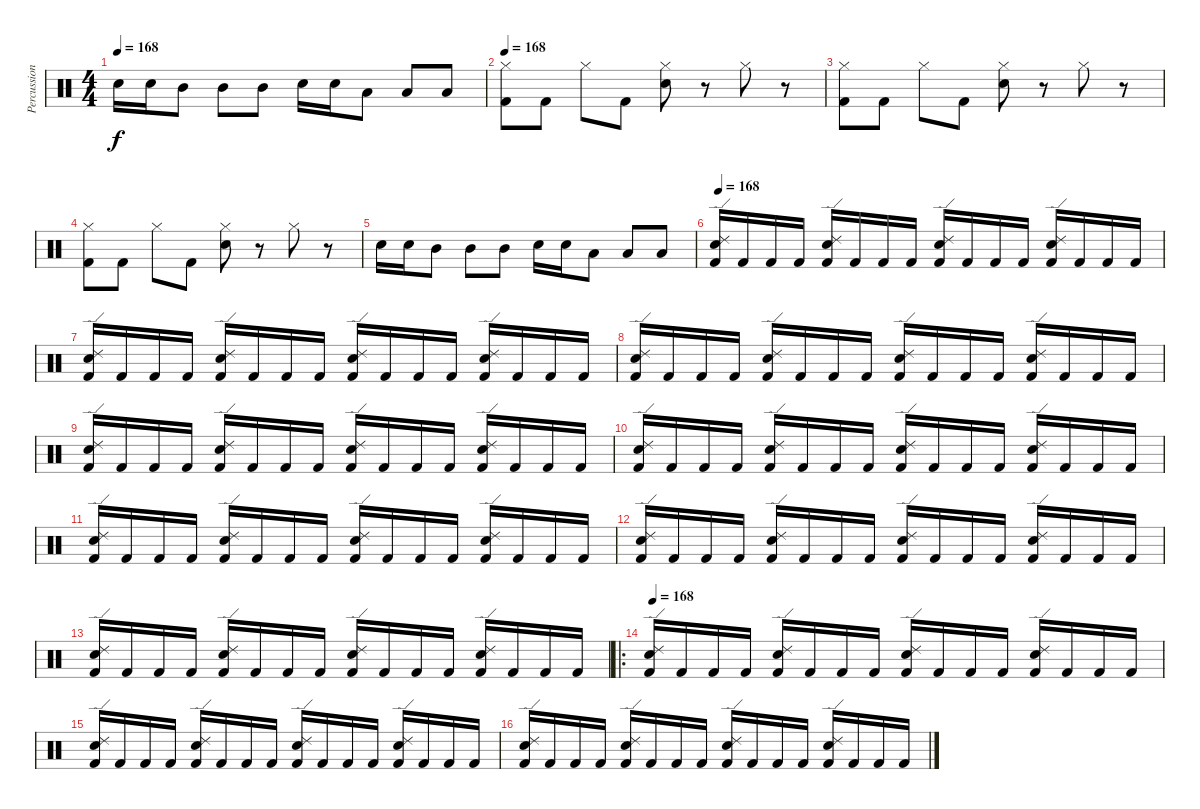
\track ("Percussion" "Percussion") {instrument percussion}
\staff {score}
\articulation defaults
\ts (4 4)
\tempo 168
\clef neutral
\ks c "Snare (hit) 2".16{dy f} "Snare (hit) 2".16 "Mid Tom (hit)".8 "Mid Tom (hit)".8 "Mid Tom (hit)".8 "Snare (hit) 2".16 "Snare (hit) 2".16 "Low Tom (hit)".8 "Low Tom (hit)".8 "Low Tom (hit)".8
|
\tempo 168
("Hi-Hat (closed)" "Kick (hit) 2").8 "Kick (hit) 2".8 "Hi-Hat (closed)".8 "Kick (hit) 2".8 ("Hi-Hat (closed)" "Snare (hit) 2").8 r.8 "Hi-Hat (closed)".8 r.8 |
("Hi-Hat (closed)" "Kick (hit) 2").8 "Kick (hit) 2".8 "Hi-Hat (closed)".8 "Kick (hit) 2".8 ("Hi-Hat (closed)" "Snare (hit) 2").8 r.8 "Hi-Hat (closed)".8 r.8 |
("Hi-Hat (closed)" "Kick (hit) 2").8 "Kick (hit) 2".8 "Hi-Hat (closed)".8 "Kick (hit) 2".8 ("Hi-Hat (closed)" "Snare (hit) 2").8 r.8 "Hi-Hat (closed)".8 r.8 |
"Snare (hit) 2".16 "Snare (hit) 2".16 "Mid Tom (hit)".8 "Mid Tom (hit)".8 "Mid Tom (hit)".8 "Snare (hit) 2".16 "Snare (hit) 2".16 "Low Tom (hit)".8 "Low Tom (hit)".8 "Low Tom (hit)".8 |
\tempo 168
("Ride (edge) 2" "Snare (hit) 2" "Kick (hit) 2").16 "Kick (hit) 2".16 "Kick (hit) 2".16 "Kick (hit) 2".16 ("Ride (edge) 2" "Snare (hit) 2" "Kick (hit) 2").16 "Kick (hit) 2".16 "Kick (hit) 2".16 "Kick (hit) 2".16 ("Ride (edge) 2" "Snare (hit) 2" "Kick (hit) 2").16 "Kick (hit) 2".16 "Kick (hit) 2".16 "Kick (hit) 2".16 ("Ride (edge) 2" "Snare (hit) 2" "Kick (hit) 2").16 "Kick (hit) 2".16 "Kick (hit) 2".16 "Kick (hit) 2".16 |
("Ride (edge) 2" "Snare (hit) 2" "Kick (hit) 2").16 "Kick (hit) 2".16 "Kick (hit) 2".16 "Kick (hit) 2".16 ("Ride (edge) 2" "Snare (hit) 2" "Kick (hit) 2").16 "Kick (hit) 2".16 "Kick (hit) 2".16 "Kick (hit) 2".16 ("Ride (edge) 2" "Snare (hit) 2" "Kick (hit) 2").16 "Kick (hit) 2".16 "Kick (hit) 2".16 "Kick (hit) 2".16 ("Ride (edge) 2" "Snare (hit) 2" "Kick (hit) 2").16 "Kick (hit) 2".16 "Kick (hit) 2".16 "Kick (hit) 2".16 |
("Ride (edge) 2" "Snare (hit) 2" "Kick (hit) 2").16 "Kick (hit) 2".16 "Kick (hit) 2".16 "Kick (hit) 2".16 ("Ride (edge) 2" "Snare (hit) 2" "Kick (hit) 2").16 "Kick (hit) 2".16 "Kick (hit) 2".16 "Kick (hit) 2".16 ("Ride (edge) 2" "Snare (hit) 2" "Kick (hit) 2").16 "Kick (hit) 2".16 "Kick (hit) 2".16 "Kick (hit) 2".16 ("Ride (edge) 2" "Snare (hit) 2" "Kick (hit) 2").16 "Kick (hit) 2".16 "Kick (hit) 2".16 "Kick (hit) 2".16 |
("Ride (edge) 2" "Snare (hit) 2" "Kick (hit) 2").16 "Kick (hit) 2".16 "Kick (hit) 2".16 "Kick (hit) 2".16 ("Ride (edge) 2" "Snare (hit) 2" "Kick (hit) 2").16 "Kick (hit) 2".16 "Kick (hit) 2".16 "Kick (hit) 2".16 ("Ride (edge) 2" "Snare (hit) 2" "Kick (hit) 2").16 "Kick (hit) 2".16 "Kick (hit) 2".16 "Kick (hit) 2".16 ("Ride (edge) 2" "Snare (hit) 2" "Kick (hit) 2").16 "Kick (hit) 2".16 "Kick (hit) 2".16 "Kick (hit) 2".16 |
("Ride (edge) 2" "Snare (hit) 2" "Kick (hit) 2").16 "Kick (hit) 2".16 "Kick (hit) 2".16 "Kick (hit) 2".16 ("Ride (edge) 2" "Snare (hit) 2" "Kick (hit) 2").16 "Kick (hit) 2".16 "Kick (hit) 2".16 "Kick (hit) 2".16 ("Ride (edge) 2" "Snare (hit) 2" "Kick (hit) 2").16 "Kick (hit) 2".16 "Kick (hit) 2".16 "Kick (hit) 2".16 ("Ride (edge) 2" "Snare (hit) 2" "Kick (hit) 2").16 "Kick (hit) 2".16 "Kick (hit) 2".16 "Kick (hit) 2".16 |
("Ride (edge) 2" "Snare (hit) 2" "Kick (hit) 2").16 "Kick (hit) 2".16 "Kick (hit) 2".16 "Kick (hit) 2".16 ("Ride (edge) 2" "Snare (hit) 2" "Kick (hit) 2").16 "Kick (hit) 2".16 "Kick (hit) 2".16 "Kick (hit) 2".16 ("Ride (edge) 2" "Snare (hit) 2" "Kick (hit) 2").16 "Kick (hit) 2".16 "Kick (hit) 2".16 "Kick (hit) 2".16 ("Ride (edge) 2" "Snare (hit) 2" "Kick (hit) 2").16 "Kick (hit) 2".16 "Kick (hit) 2".16 "Kick (hit) 2".16 |
("Ride (edge) 2" "Snare (hit) 2" "Kick (hit) 2").16 "Kick (hit) 2".16 "Kick (hit) 2".16 "Kick (hit) 2".16 ("Ride (edge) 2" "Snare (hit) 2" "Kick (hit) 2").16 "Kick (hit) 2".16 "Kick (hit) 2".16 "Kick (hit) 2".16 ("Ride (edge) 2" "Snare (hit) 2" "Kick (hit) 2").16 "Kick (hit) 2".16 "Kick (hit) 2".16 "Kick (hit) 2".16 ("Ride (edge) 2" "Snare (hit) 2" "Kick (hit) 2").16 "Kick (hit) 2".16 "Kick (hit) 2".16 "Kick (hit) 2".16 |
("Ride (edge) 2" "Snare (hit) 2" "Kick (hit) 2").16 "Kick (hit) 2".16 "Kick (hit) 2".16 "Kick (hit) 2".16 ("Ride (edge) 2" "Snare (hit) 2" "Kick (hit) 2").16 "Kick (hit) 2".16 "Kick (hit) 2".16 "Kick (hit) 2".16 ("Ride (edge) 2" "Snare (hit) 2" "Kick (hit) 2").16 "Kick (hit) 2".16 "Kick (hit) 2".16 "Kick (hit) 2".16 ("Ride (edge) 2" "Snare (hit) 2" "Kick (hit) 2").16 "Kick (hit) 2".16 "Kick (hit) 2".16 "Kick (hit) 2".16 |
\ro
\tempo 168
("Ride (edge) 2" "Snare (hit) 2" "Kick (hit) 2").16 "Kick (hit) 2".16 "Kick (hit) 2".16 "Kick (hit) 2".16 ("Ride (edge) 2" "Snare (hit) 2" "Kick (hit) 2").16 "Kick (hit) 2".16 "Kick (hit) 2".16 "Kick (hit) 2".16 ("Ride (edge) 2" "Snare (hit) 2" "Kick (hit) 2").16 "Kick (hit) 2".16 "Kick (hit) 2".16 "Kick (hit) 2".16 ("Ride (edge) 2" "Snare (hit) 2" "Kick (hit) 2").16 "Kick (hit) 2".16 "Kick (hit) 2".16 "Kick (hit) 2".16 |
("Ride (edge) 2" "Snare (hit) 2" "Kick (hit) 2").16 "Kick (hit) 2".16 "Kick (hit) 2".16 "Kick (hit) 2".16 ("Ride (edge) 2" "Snare (hit) 2" "Kick (hit) 2").16 "Kick (hit) 2".16 "Kick (hit) 2".16 "Kick (hit) 2".16 ("Ride (edge) 2" "Snare (hit) 2" "Kick (hit) 2").16 "Kick (hit) 2".16 "Kick (hit) 2".16 "Kick (hit) 2".16 ("Ride (edge) 2" "Snare (hit) 2" "Kick (hit) 2").16 "Kick (hit) 2".16 "Kick (hit) 2".16 "Kick (hit) 2".16 |
("Ride (edge) 2" "Snare (hit) 2" "Kick (hit) 2").16 "Kick (hit) 2".16 "Kick (hit) 2".16 "Kick (hit) 2".16 ("Ride (edge) 2" "Snare (hit) 2" "Kick (hit) 2").16 "Kick (hit) 2".16 "Kick (hit) 2".16 "Kick (hit) 2".16 ("Ride (edge) 2" "Snare (hit) 2" "Kick (hit) 2").16 "Kick (hit) 2".16 "Kick (hit) 2".16 "Kick (hit) 2".16 ("Ride (edge) 2" "Snare (hit) 2" "Kick (hit) 2").16 "Kick (hit) 2".16 "Kick (hit) 2".16 "Kick (hit) 2".16
